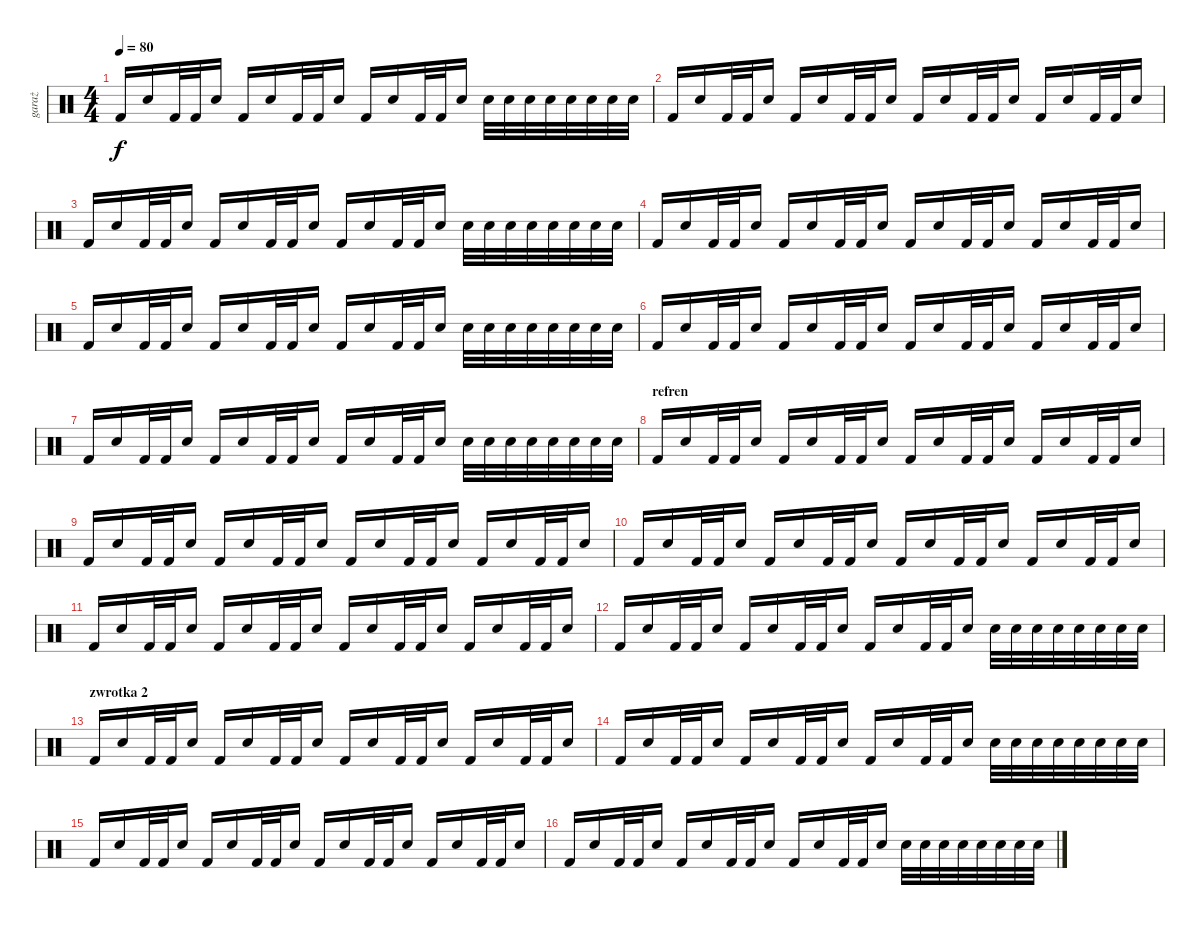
\track ("garaż" "garaż") {instrument percussion}
\staff {score}
\articulation defaults
\ts (4 4)
\tempo 80
\clef neutral
\ks c "Kick (hit) 2".16{dy f} "Snare (hit) 2".16 "Kick (hit) 2".32 "Kick (hit) 2".32 "Snare (hit) 2".16 "Kick (hit) 2".16 "Snare (hit) 2".16 "Kick (hit) 2".32 "Kick (hit) 2".32 "Snare (hit) 2".16 "Kick (hit) 2".16 "Snare (hit) 2".16 "Kick (hit) 2".32 "Kick (hit) 2".32 "Snare (hit) 2".16 "Snare (hit) 2".32 "Snare (hit) 2".32 "Snare (hit) 2".32 "Snare (hit) 2".32 "Snare (hit) 2".32 "Snare (hit) 2".32 "Snare (hit) 2".32 "Snare (hit) 2".32
|
"Kick (hit) 2".16 "Snare (hit) 2".16 "Kick (hit) 2".32 "Kick (hit) 2".32 "Snare (hit) 2".16 "Kick (hit) 2".16 "Snare (hit) 2".16 "Kick (hit) 2".32 "Kick (hit) 2".32 "Snare (hit) 2".16 "Kick (hit) 2".16 "Snare (hit) 2".16 "Kick (hit) 2".32 "Kick (hit) 2".32 "Snare (hit) 2".16 "Kick (hit) 2".16 "Snare (hit) 2".16 "Kick (hit) 2".32 "Kick (hit) 2".32 "Snare (hit) 2".16 |
"Kick (hit) 2".16 "Snare (hit) 2".16 "Kick (hit) 2".32 "Kick (hit) 2".32 "Snare (hit) 2".16 "Kick (hit) 2".16 "Snare (hit) 2".16 "Kick (hit) 2".32 "Kick (hit) 2".32 "Snare (hit) 2".16 "Kick (hit) 2".16 "Snare (hit) 2".16 "Kick (hit) 2".32 "Kick (hit) 2".32 "Snare (hit) 2".16 "Snare (hit) 2".32 "Snare (hit) 2".32 "Snare (hit) 2".32 "Snare (hit) 2".32 "Snare (hit) 2".32 "Snare (hit) 2".32 "Snare (hit) 2".32 "Snare (hit) 2".32 |
"Kick (hit) 2".16 "Snare (hit) 2".16 "Kick (hit) 2".32 "Kick (hit) 2".32 "Snare (hit) 2".16 "Kick (hit) 2".16 "Snare (hit) 2".16 "Kick (hit) 2".32 "Kick (hit) 2".32 "Snare (hit) 2".16 "Kick (hit) 2".16 "Snare (hit) 2".16 "Kick (hit) 2".32 "Kick (hit) 2".32 "Snare (hit) 2".16 "Kick (hit) 2".16 "Snare (hit) 2".16 "Kick (hit) 2".32 "Kick (hit) 2".32 "Snare (hit) 2".16 |
"Kick (hit) 2".16 "Snare (hit) 2".16 "Kick (hit) 2".32 "Kick (hit) 2".32 "Snare (hit) 2".16 "Kick (hit) 2".16 "Snare (hit) 2".16 "Kick (hit) 2".32 "Kick (hit) 2".32 "Snare (hit) 2".16 "Kick (hit) 2".16 "Snare (hit) 2".16 "Kick (hit) 2".32 "Kick (hit) 2".32 "Snare (hit) 2".16 "Snare (hit) 2".32 "Snare (hit) 2".32 "Snare (hit) 2".32 "Snare (hit) 2".32 "Snare (hit) 2".32 "Snare (hit) 2".32 "Snare (hit) 2".32 "Snare (hit) 2".32 |
"Kick (hit) 2".16 "Snare (hit) 2".16 "Kick (hit) 2".32 "Kick (hit) 2".32 "Snare (hit) 2".16 "Kick (hit) 2".16 "Snare (hit) 2".16 "Kick (hit) 2".32 "Kick (hit) 2".32 "Snare (hit) 2".16 "Kick (hit) 2".16 "Snare (hit) 2".16 "Kick (hit) 2".32 "Kick (hit) 2".32 "Snare (hit) 2".16 "Kick (hit) 2".16 "Snare (hit) 2".16 "Kick (hit) 2".32 "Kick (hit) 2".32 "Snare (hit) 2".16 |
"Kick (hit) 2".16 "Snare (hit) 2".16 "Kick (hit) 2".32 "Kick (hit) 2".32 "Snare (hit) 2".16 "Kick (hit) 2".16 "Snare (hit) 2".16 "Kick (hit) 2".32 "Kick (hit) 2".32 "Snare (hit) 2".16 "Kick (hit) 2".16 "Snare (hit) 2".16 "Kick (hit) 2".32 "Kick (hit) 2".32 "Snare (hit) 2".16 "Snare (hit) 2".32 "Snare (hit) 2".32 "Snare (hit) 2".32 "Snare (hit) 2".32 "Snare (hit) 2".32 "Snare (hit) 2".32 "Snare (hit) 2".32 "Snare (hit) 2".32 |
\section ("" "refren")
"Kick (hit) 2".16 "Snare (hit) 2".16 "Kick (hit) 2".32 "Kick (hit) 2".32 "Snare (hit) 2".16 "Kick (hit) 2".16 "Snare (hit) 2".16 "Kick (hit) 2".32 "Kick (hit) 2".32 "Snare (hit) 2".16 "Kick (hit) 2".16 "Snare (hit) 2".16 "Kick (hit) 2".32 "Kick (hit) 2".32 "Snare (hit) 2".16 "Kick (hit) 2".16 "Snare (hit) 2".16 "Kick (hit) 2".32 "Kick (hit) 2".32 "Snare (hit) 2".16 |
"Kick (hit) 2".16 "Snare (hit) 2".16 "Kick (hit) 2".32 "Kick (hit) 2".32 "Snare (hit) 2".16 "Kick (hit) 2".16 "Snare (hit) 2".16 "Kick (hit) 2".32 "Kick (hit) 2".32 "Snare (hit) 2".16 "Kick (hit) 2".16 "Snare (hit) 2".16 "Kick (hit) 2".32 "Kick (hit) 2".32 "Snare (hit) 2".16 "Kick (hit) 2".16 "Snare (hit) 2".16 "Kick (hit) 2".32 "Kick (hit) 2".32 "Snare (hit) 2".16 |
"Kick (hit) 2".16 "Snare (hit) 2".16 "Kick (hit) 2".32 "Kick (hit) 2".32 "Snare (hit) 2".16 "Kick (hit) 2".16 "Snare (hit) 2".16 "Kick (hit) 2".32 "Kick (hit) 2".32 "Snare (hit) 2".16 "Kick (hit) 2".16 "Snare (hit) 2".16 "Kick (hit) 2".32 "Kick (hit) 2".32 "Snare (hit) 2".16 "Kick (hit) 2".16 "Snare (hit) 2".16 "Kick (hit) 2".32 "Kick (hit) 2".32 "Snare (hit) 2".16 |
"Kick (hit) 2".16 "Snare (hit) 2".16 "Kick (hit) 2".32 "Kick (hit) 2".32 "Snare (hit) 2".16 "Kick (hit) 2".16 "Snare (hit) 2".16 "Kick (hit) 2".32 "Kick (hit) 2".32 "Snare (hit) 2".16 "Kick (hit) 2".16 "Snare (hit) 2".16 "Kick (hit) 2".32 "Kick (hit) 2".32 "Snare (hit) 2".16 "Kick (hit) 2".16 "Snare (hit) 2".16 "Kick (hit) 2".32 "Kick (hit) 2".32 "Snare (hit) 2".16 |
"Kick (hit) 2".16 "Snare (hit) 2".16 "Kick (hit) 2".32 "Kick (hit) 2".32 "Snare (hit) 2".16 "Kick (hit) 2".16 "Snare (hit) 2".16 "Kick (hit) 2".32 "Kick (hit) 2".32 "Snare (hit) 2".16 "Kick (hit) 2".16 "Snare (hit) 2".16 "Kick (hit) 2".32 "Kick (hit) 2".32 "Snare (hit) 2".16 "Snare (hit) 2".32 "Snare (hit) 2".32 "Snare (hit) 2".32 "Snare (hit) 2".32 "Snare (hit) 2".32 "Snare (hit) 2".32 "Snare (hit) 2".32 "Snare (hit) 2".32 |
\section ("" "zwrotka 2")
"Kick (hit) 2".16 "Snare (hit) 2".16 "Kick (hit) 2".32 "Kick (hit) 2".32 "Snare (hit) 2".16 "Kick (hit) 2".16 "Snare (hit) 2".16 "Kick (hit) 2".32 "Kick (hit) 2".32 "Snare (hit) 2".16 "Kick (hit) 2".16 "Snare (hit) 2".16 "Kick (hit) 2".32 "Kick (hit) 2".32 "Snare (hit) 2".16 "Kick (hit) 2".16 "Snare (hit) 2".16 "Kick (hit) 2".32 "Kick (hit) 2".32 "Snare (hit) 2".16 |
"Kick (hit) 2".16 "Snare (hit) 2".16 "Kick (hit) 2".32 "Kick (hit) 2".32 "Snare (hit) 2".16 "Kick (hit) 2".16 "Snare (hit) 2".16 "Kick (hit) 2".32 "Kick (hit) 2".32 "Snare (hit) 2".16 "Kick (hit) 2".16 "Snare (hit) 2".16 "Kick (hit) 2".32 "Kick (hit) 2".32 "Snare (hit) 2".16 "Snare (hit) 2".32 "Snare (hit) 2".32 "Snare (hit) 2".32 "Snare (hit) 2".32 "Snare (hit) 2".32 "Snare (hit) 2".32 "Snare (hit) 2".32 "Snare (hit) 2".32 |
"Kick (hit) 2".16 "Snare (hit) 2".16 "Kick (hit) 2".32 "Kick (hit) 2".32 "Snare (hit) 2".16 "Kick (hit) 2".16 "Snare (hit) 2".16 "Kick (hit) 2".32 "Kick (hit) 2".32 "Snare (hit) 2".16 "Kick (hit) 2".16 "Snare (hit) 2".16 "Kick (hit) 2".32 "Kick (hit) 2".32 "Snare (hit) 2".16 "Kick (hit) 2".16 "Snare (hit) 2".16 "Kick (hit) 2".32 "Kick (hit) 2".32 "Snare (hit) 2".16 |
"Kick (hit) 2".16 "Snare (hit) 2".16 "Kick (hit) 2".32 "Kick (hit) 2".32 "Snare (hit) 2".16 "Kick (hit) 2".16 "Snare (hit) 2".16 "Kick (hit) 2".32 "Kick (hit) 2".32 "Snare (hit) 2".16 "Kick (hit) 2".16 "Snare (hit) 2".16 "Kick (hit) 2".32 "Kick (hit) 2".32 "Snare (hit) 2".16 "Snare (hit) 2".32 "Snare (hit) 2".32 "Snare (hit) 2".32 "Snare (hit) 2".32 "Snare (hit) 2".32 "Snare (hit) 2".32 "Snare (hit) 2".32 "Snare (hit) 2".32
